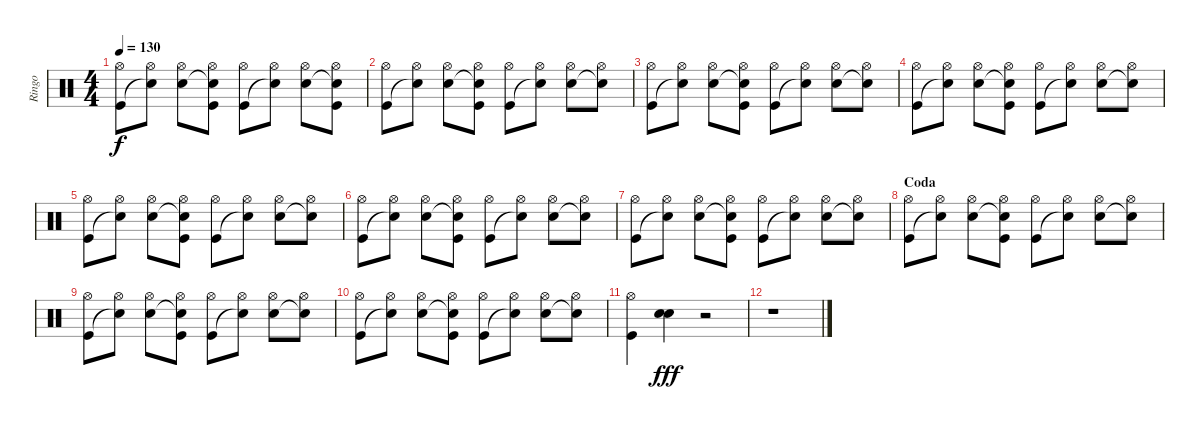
\track ("Ringo" "Ringo") {instrument percussion}
\staff {score}
\articulation defaults
\ts (4 4)
\tempo 130
\clef neutral
\ks c
("Hi-Hat (open)" "Kick (hit)").8{dy f} ("Hi-Hat (open)" "Snare (hit)"{t}).8 ("Hi-Hat (open)" "Snare (hit) 2").8 ("Hi-Hat (open)" "Snare (hit)"{t} "Kick (hit)").8 ("Hi-Hat (open)" "Kick (hit)").8 ("Hi-Hat (open)" "Snare (hit)"{t}).8 ("Hi-Hat (open)" "Snare (hit) 2").8 ("Hi-Hat (open)" "Snare (hit)"{t} "Kick (hit)").8 |
("Hi-Hat (open)" "Kick (hit)").8 ("Hi-Hat (open)" "Snare (hit)"{t}).8 ("Hi-Hat (open)" "Snare (hit) 2").8 ("Hi-Hat (open)" "Snare (hit)"{t} "Kick (hit)").8 ("Hi-Hat (open)" "Kick (hit)").8 ("Hi-Hat (open)" "Snare (hit)"{t}).8 ("Hi-Hat (open)" "Snare (hit) 2").8 ("Hi-Hat (open)" "Snare (hit)"{t}).8 |
("Hi-Hat (open)" "Kick (hit)").8 ("Hi-Hat (open)" "Snare (hit)"{t}).8 ("Hi-Hat (open)" "Snare (hit) 2").8 ("Hi-Hat (open)" "Snare (hit)"{t} "Kick (hit)").8 ("Hi-Hat (open)" "Kick (hit)").8 ("Hi-Hat (open)" "Snare (hit)"{t}).8 ("Hi-Hat (open)" "Snare (hit) 2").8 ("Hi-Hat (open)" "Snare (hit)"{t}).8 |
("Hi-Hat (open)" "Kick (hit)").8 ("Hi-Hat (open)" "Snare (hit)"{t}).8 ("Hi-Hat (open)" "Snare (hit) 2").8 ("Hi-Hat (open)" "Snare (hit)"{t} "Kick (hit)").8 ("Hi-Hat (open)" "Kick (hit)").8 ("Hi-Hat (open)" "Snare (hit)"{t}).8 ("Hi-Hat (open)" "Snare (hit) 2").8 ("Hi-Hat (open)" "Snare (hit)"{t}).8 |
("Hi-Hat (open)" "Kick (hit)").8 ("Hi-Hat (open)" "Snare (hit)"{t}).8 ("Hi-Hat (open)" "Snare (hit) 2").8 ("Hi-Hat (open)" "Snare (hit)"{t} "Kick (hit)").8 ("Hi-Hat (open)" "Kick (hit)").8 ("Hi-Hat (open)" "Snare (hit)"{t}).8 ("Hi-Hat (open)" "Snare (hit) 2").8 ("Hi-Hat (open)" "Snare (hit)"{t}).8 |
("Hi-Hat (open)" "Kick (hit)").8 ("Hi-Hat (open)" "Snare (hit)"{t}).8 ("Hi-Hat (open)" "Snare (hit) 2").8 ("Hi-Hat (open)" "Snare (hit)"{t} "Kick (hit)").8 ("Hi-Hat (open)" "Kick (hit)").8 ("Hi-Hat (open)" "Snare (hit)"{t}).8 ("Hi-Hat (open)" "Snare (hit) 2").8 ("Hi-Hat (open)" "Snare (hit)"{t}).8 |
("Hi-Hat (open)" "Kick (hit)").8 ("Hi-Hat (open)" "Snare (hit)"{t}).8 ("Hi-Hat (open)" "Snare (hit) 2").8 ("Hi-Hat (open)" "Snare (hit)"{t} "Kick (hit)").8 ("Hi-Hat (open)" "Kick (hit)").8 ("Hi-Hat (open)" "Snare (hit)"{t}).8 ("Hi-Hat (open)" "Snare (hit) 2").8 ("Hi-Hat (open)" "Snare (hit)"{t}).8 |
\section ("" "Coda")
("Hi-Hat (open)" "Kick (hit)").8 ("Hi-Hat (open)" "Snare (hit)"{t}).8 ("Hi-Hat (open)" "Snare (hit) 2").8 ("Hi-Hat (open)" "Snare (hit)"{t} "Kick (hit)").8 ("Hi-Hat (open)" "Kick (hit)").8 ("Hi-Hat (open)" "Snare (hit)"{t}).8 ("Hi-Hat (open)" "Snare (hit) 2").8 ("Hi-Hat (open)" "Snare (hit)"{t}).8 |
("Hi-Hat (open)" "Kick (hit)").8 ("Hi-Hat (open)" "Snare (hit)"{t}).8 ("Hi-Hat (open)" "Snare (hit) 2").8 ("Hi-Hat (open)" "Snare (hit)"{t} "Kick (hit)").8 ("Hi-Hat (open)" "Kick (hit)").8 ("Hi-Hat (open)" "Snare (hit)"{t}).8 ("Hi-Hat (open)" "Snare (hit) 2").8 ("Hi-Hat (open)" "Snare (hit)"{t}).8 |
("Hi-Hat (open)" "Kick (hit)").8 ("Hi-Hat (open)" "Snare (hit)"{t}).8 ("Hi-Hat (open)" "Snare (hit) 2").8 ("Hi-Hat (open)" "Snare (hit)"{t} "Kick (hit)").8 ("Hi-Hat (open)" "Kick (hit)").8 ("Hi-Hat (open)" "Snare (hit)"{t}).8 ("Hi-Hat (open)" "Snare (hit) 2").8 ("Hi-Hat (open)" "Snare (hit)"{t}).8 |
("Hi-Hat (open)" "Kick (hit)").4 ("Electric Snare (hit)" "Snare (hit) 2").4{dy fff} r.2 |
r.1
